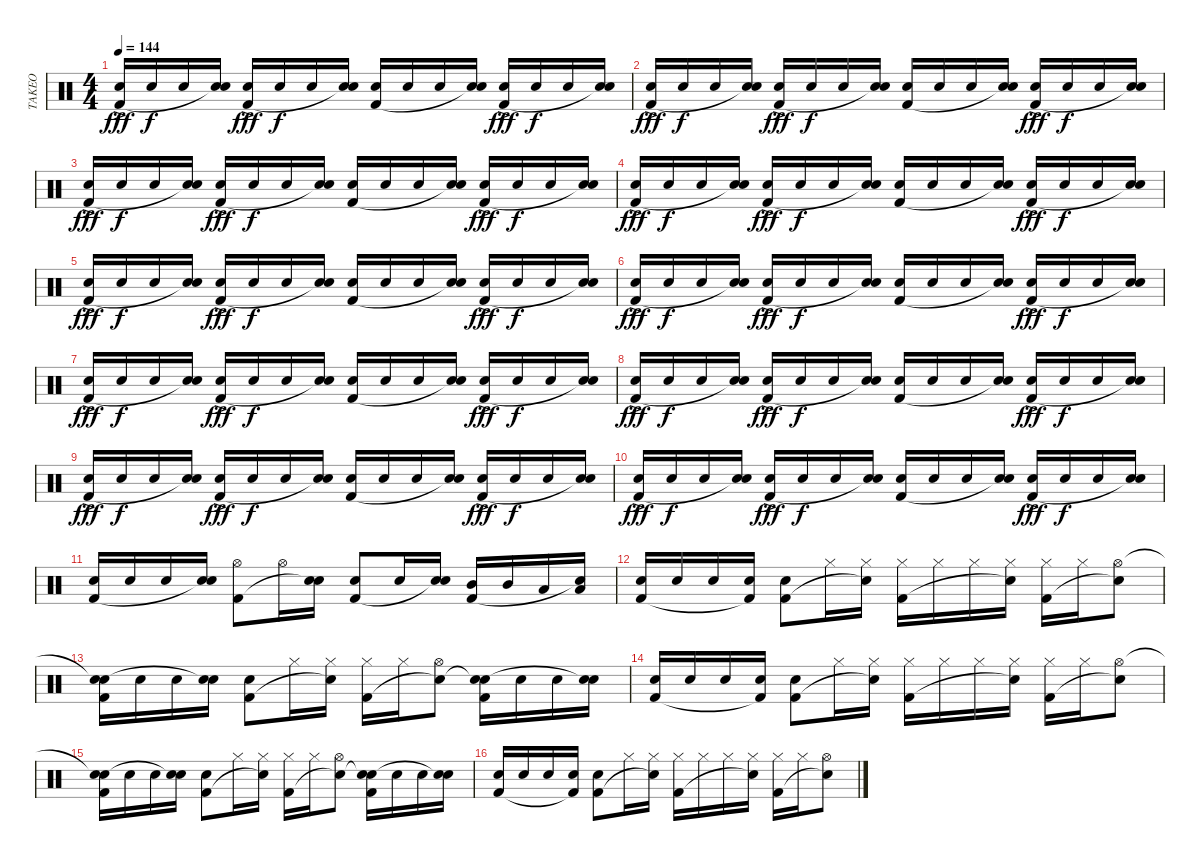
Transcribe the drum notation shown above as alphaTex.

\track ("TAKEO" "TAKEO") {instrument percussion}
\staff {score}
\articulation defaults
\ts (4 4)
\tempo 144
\clef neutral
\ks c
("Electric Snare (hit)"{ac} "Kick (hit) 2").16{dy fff} "Electric Snare (hit)".16{dy f} "Electric Snare (hit)".16 ("Electric Snare (hit)" "Snare (hit)"{t}).16 ("Electric Snare (hit)"{ac} "Kick (hit) 2").16{dy fff} "Electric Snare (hit)".16{dy f} "Electric Snare (hit)".16 ("Electric Snare (hit)" "Snare (hit)"{t}).16 ("Electric Snare (hit)" "Kick (hit) 2").16 "Electric Snare (hit)".16 "Electric Snare (hit)".16 ("Electric Snare (hit)" "Snare (hit)"{t}).16 ("Electric Snare (hit)"{ac} "Kick (hit) 2").16{dy fff} "Electric Snare (hit)".16{dy f} "Electric Snare (hit)".16 ("Electric Snare (hit)" "Snare (hit)"{t}).16 |
("Electric Snare (hit)"{ac} "Kick (hit) 2").16{dy fff} "Electric Snare (hit)".16{dy f} "Electric Snare (hit)".16 ("Electric Snare (hit)" "Snare (hit)"{t}).16 ("Electric Snare (hit)"{ac} "Kick (hit) 2").16{dy fff} "Electric Snare (hit)".16{dy f} "Electric Snare (hit)".16 ("Electric Snare (hit)" "Snare (hit)"{t}).16 ("Electric Snare (hit)" "Kick (hit) 2").16 "Electric Snare (hit)".16 "Electric Snare (hit)".16 ("Electric Snare (hit)" "Snare (hit)"{t}).16 ("Electric Snare (hit)"{ac} "Kick (hit) 2").16{dy fff} "Electric Snare (hit)".16{dy f} "Electric Snare (hit)".16 ("Electric Snare (hit)" "Snare (hit)"{t}).16 |
("Electric Snare (hit)"{ac} "Kick (hit) 2").16{dy fff} "Electric Snare (hit)".16{dy f} "Electric Snare (hit)".16 ("Electric Snare (hit)" "Snare (hit)"{t}).16 ("Electric Snare (hit)"{ac} "Kick (hit) 2").16{dy fff} "Electric Snare (hit)".16{dy f} "Electric Snare (hit)".16 ("Electric Snare (hit)" "Snare (hit)"{t}).16 ("Electric Snare (hit)" "Kick (hit) 2").16 "Electric Snare (hit)".16 "Electric Snare (hit)".16 ("Electric Snare (hit)" "Snare (hit)"{t}).16 ("Electric Snare (hit)"{ac} "Kick (hit) 2").16{dy fff} "Electric Snare (hit)".16{dy f} "Electric Snare (hit)".16 ("Electric Snare (hit)" "Snare (hit)"{t}).16 |
("Electric Snare (hit)"{ac} "Kick (hit) 2").16{dy fff} "Electric Snare (hit)".16{dy f} "Electric Snare (hit)".16 ("Electric Snare (hit)" "Snare (hit)"{t}).16 ("Electric Snare (hit)"{ac} "Kick (hit) 2").16{dy fff} "Electric Snare (hit)".16{dy f} "Electric Snare (hit)".16 ("Electric Snare (hit)" "Snare (hit)"{t}).16 ("Electric Snare (hit)" "Kick (hit) 2").16 "Electric Snare (hit)".16 "Electric Snare (hit)".16 ("Electric Snare (hit)" "Snare (hit)"{t}).16 ("Electric Snare (hit)"{ac} "Kick (hit) 2").16{dy fff} "Electric Snare (hit)".16{dy f} "Electric Snare (hit)".16 ("Electric Snare (hit)" "Snare (hit)"{t}).16 |
("Electric Snare (hit)"{ac} "Kick (hit) 2").16{dy fff} "Electric Snare (hit)".16{dy f} "Electric Snare (hit)".16 ("Electric Snare (hit)" "Snare (hit)"{t}).16 ("Electric Snare (hit)"{ac} "Kick (hit) 2").16{dy fff} "Electric Snare (hit)".16{dy f} "Electric Snare (hit)".16 ("Electric Snare (hit)" "Snare (hit)"{t}).16 ("Electric Snare (hit)" "Kick (hit) 2").16 "Electric Snare (hit)".16 "Electric Snare (hit)".16 ("Electric Snare (hit)" "Snare (hit)"{t}).16 ("Electric Snare (hit)"{ac} "Kick (hit) 2").16{dy fff} "Electric Snare (hit)".16{dy f} "Electric Snare (hit)".16 ("Electric Snare (hit)" "Snare (hit)"{t}).16 |
("Electric Snare (hit)"{ac} "Kick (hit) 2").16{dy fff} "Electric Snare (hit)".16{dy f} "Electric Snare (hit)".16 ("Electric Snare (hit)" "Snare (hit)"{t}).16 ("Electric Snare (hit)"{ac} "Kick (hit) 2").16{dy fff} "Electric Snare (hit)".16{dy f} "Electric Snare (hit)".16 ("Electric Snare (hit)" "Snare (hit)"{t}).16 ("Electric Snare (hit)" "Kick (hit) 2").16 "Electric Snare (hit)".16 "Electric Snare (hit)".16 ("Electric Snare (hit)" "Snare (hit)"{t}).16 ("Electric Snare (hit)"{ac} "Kick (hit) 2").16{dy fff} "Electric Snare (hit)".16{dy f} "Electric Snare (hit)".16 ("Electric Snare (hit)" "Snare (hit)"{t}).16 |
("Electric Snare (hit)"{ac} "Kick (hit) 2").16{dy fff} "Electric Snare (hit)".16{dy f} "Electric Snare (hit)".16 ("Electric Snare (hit)" "Snare (hit)"{t}).16 ("Electric Snare (hit)"{ac} "Kick (hit) 2").16{dy fff} "Electric Snare (hit)".16{dy f} "Electric Snare (hit)".16 ("Electric Snare (hit)" "Snare (hit)"{t}).16 ("Electric Snare (hit)" "Kick (hit) 2").16 "Electric Snare (hit)".16 "Electric Snare (hit)".16 ("Electric Snare (hit)" "Snare (hit)"{t}).16 ("Electric Snare (hit)"{ac} "Kick (hit) 2").16{dy fff} "Electric Snare (hit)".16{dy f} "Electric Snare (hit)".16 ("Electric Snare (hit)" "Snare (hit)"{t}).16 |
("Electric Snare (hit)"{ac} "Kick (hit) 2").16{dy fff} "Electric Snare (hit)".16{dy f} "Electric Snare (hit)".16 ("Electric Snare (hit)" "Snare (hit)"{t}).16 ("Electric Snare (hit)"{ac} "Kick (hit) 2").16{dy fff} "Electric Snare (hit)".16{dy f} "Electric Snare (hit)".16 ("Electric Snare (hit)" "Snare (hit)"{t}).16 ("Electric Snare (hit)" "Kick (hit) 2").16 "Electric Snare (hit)".16 "Electric Snare (hit)".16 ("Electric Snare (hit)" "Snare (hit)"{t}).16 ("Electric Snare (hit)"{ac} "Kick (hit) 2").16{dy fff} "Electric Snare (hit)".16{dy f} "Electric Snare (hit)".16 ("Electric Snare (hit)" "Snare (hit)"{t}).16 |
("Electric Snare (hit)"{ac} "Kick (hit) 2").16{dy fff} "Electric Snare (hit)".16{dy f} "Electric Snare (hit)".16 ("Electric Snare (hit)" "Snare (hit)"{t}).16 ("Electric Snare (hit)"{ac} "Kick (hit) 2").16{dy fff} "Electric Snare (hit)".16{dy f} "Electric Snare (hit)".16 ("Electric Snare (hit)" "Snare (hit)"{t}).16 ("Electric Snare (hit)" "Kick (hit) 2").16 "Electric Snare (hit)".16 "Electric Snare (hit)".16 ("Electric Snare (hit)" "Snare (hit)"{t}).16 ("Electric Snare (hit)"{ac} "Kick (hit) 2").16{dy fff} "Electric Snare (hit)".16{dy f} "Electric Snare (hit)".16 ("Electric Snare (hit)" "Snare (hit)"{t}).16 |
("Electric Snare (hit)"{ac} "Kick (hit) 2").16{dy fff} "Electric Snare (hit)".16{dy f} "Electric Snare (hit)".16 ("Electric Snare (hit)" "Snare (hit)"{t}).16 ("Electric Snare (hit)"{ac} "Kick (hit) 2").16{dy fff} "Electric Snare (hit)".16{dy f} "Electric Snare (hit)".16 ("Electric Snare (hit)" "Snare (hit)"{t}).16 ("Electric Snare (hit)" "Kick (hit) 2").16 "Electric Snare (hit)".16 "Electric Snare (hit)".16 ("Electric Snare (hit)" "Snare (hit)"{t}).16 ("Electric Snare (hit)"{ac} "Kick (hit) 2").16{dy fff} "Electric Snare (hit)".16{dy f} "Electric Snare (hit)".16 ("Electric Snare (hit)" "Snare (hit)"{t}).16 |
("Electric Snare (hit)" "Kick (hit) 2").16 "Electric Snare (hit)".16 "Electric Snare (hit)".16 ("Electric Snare (hit)" "Snare (hit)"{t}).16 ("Hi-Hat (open)" "Kick (hit) 2").8 "Hi-Hat (open)".16 ("Electric Snare (hit)" "Snare (hit)"{t}).16 ("Electric Snare (hit)" "Kick (hit) 2").8 "Electric Snare (hit)".16 ("Electric Snare (hit)" "Snare (hit)"{t}).16 ("Mid Tom (hit)" "Kick (hit) 2").16 "Mid Tom (hit)".16 "Low Tom (hit)".16 ("Low Tom (hit)" "Snare (hit)"{t}).16 |
("Electric Snare (hit)" "Kick (hit) 2").16 "Electric Snare (hit)".16 "Electric Snare (hit)".16 ("Electric Snare (hit)" "Kick (hit) 2"{t}).16 ("Electric Snare (hit)" "Kick (hit) 2").8 "Hi-Hat (closed)".16 ("Hi-Hat (closed)" "Snare (hit)"{t}).16 ("Hi-Hat (closed)" "Kick (hit) 2").16 "Hi-Hat (closed)".16 "Hi-Hat (closed)".16 ("Hi-Hat (closed)" "Snare (hit)"{t}).16 ("Hi-Hat (closed)" "Kick (hit) 2").16 "Hi-Hat (closed)".16 ("Hi-Hat (open)" "Snare (hit)"{t}).8 |
("Snare (hit)"{t} "Electric Snare (hit)" "Kick (hit) 2").16 "Electric Snare (hit)".16 "Electric Snare (hit)".16 ("Electric Snare (hit)" "Snare (hit)"{t}).16 ("Electric Snare (hit)" "Kick (hit) 2").8 "Hi-Hat (closed)".16 ("Hi-Hat (closed)" "Snare (hit)"{t}).16 ("Hi-Hat (closed)" "Kick (hit) 2").16 "Hi-Hat (closed)".16 ("Hi-Hat (open)" "Snare (hit)"{t}).8 ("Electric Snare (hit)" "Snare (hit)"{t} "Kick (hit) 2").16 "Electric Snare (hit)".16 "Electric Snare (hit)".16 ("Electric Snare (hit)" "Snare (hit)"{t}).16 |
("Electric Snare (hit)" "Kick (hit) 2").16 "Electric Snare (hit)".16 "Electric Snare (hit)".16 ("Electric Snare (hit)" "Kick (hit) 2"{t}).16 ("Electric Snare (hit)" "Kick (hit) 2").8 "Hi-Hat (closed)".16 ("Hi-Hat (closed)" "Snare (hit)"{t}).16 ("Hi-Hat (closed)" "Kick (hit) 2").16 "Hi-Hat (closed)".16 "Hi-Hat (closed)".16 ("Hi-Hat (closed)" "Snare (hit)"{t}).16 ("Hi-Hat (closed)" "Kick (hit) 2").16 "Hi-Hat (closed)".16 ("Hi-Hat (open)" "Snare (hit)"{t}).8 |
("Snare (hit)"{t} "Electric Snare (hit)" "Kick (hit) 2").16 "Electric Snare (hit)".16 "Electric Snare (hit)".16 ("Electric Snare (hit)" "Snare (hit)"{t}).16 ("Electric Snare (hit)" "Kick (hit) 2").8 "Hi-Hat (closed)".16 ("Hi-Hat (closed)" "Snare (hit)"{t}).16 ("Hi-Hat (closed)" "Kick (hit) 2").16 "Hi-Hat (closed)".16 ("Hi-Hat (open)" "Snare (hit)"{t}).8 ("Electric Snare (hit)" "Snare (hit)"{t} "Kick (hit) 2").16 "Electric Snare (hit)".16 "Electric Snare (hit)".16 ("Electric Snare (hit)" "Snare (hit)"{t}).16 |
("Electric Snare (hit)" "Kick (hit) 2").16 "Electric Snare (hit)".16 "Electric Snare (hit)".16 ("Electric Snare (hit)" "Kick (hit) 2"{t}).16 ("Electric Snare (hit)" "Kick (hit) 2").8 "Hi-Hat (closed)".16 ("Hi-Hat (closed)" "Snare (hit)"{t}).16 ("Hi-Hat (closed)" "Kick (hit) 2").16 "Hi-Hat (closed)".16 "Hi-Hat (closed)".16 ("Hi-Hat (closed)" "Snare (hit)"{t}).16 ("Hi-Hat (closed)" "Kick (hit) 2").16 "Hi-Hat (closed)".16 ("Hi-Hat (open)" "Snare (hit)"{t}).8
